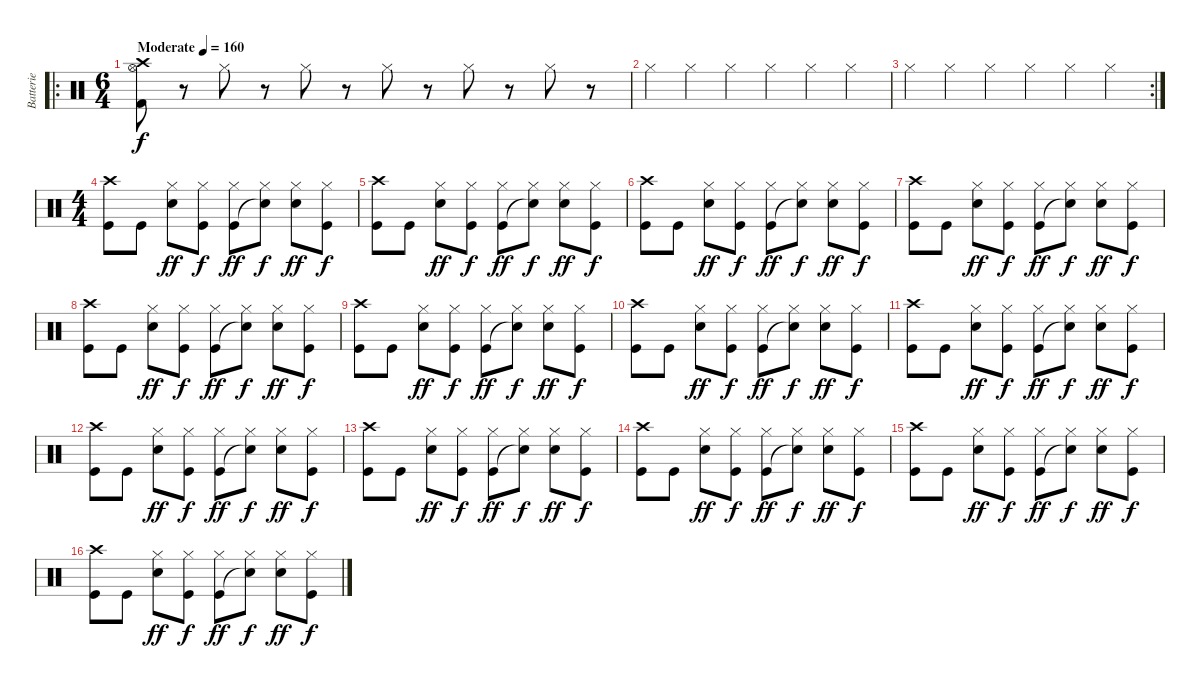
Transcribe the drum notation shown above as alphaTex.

\track ("Batterie" "Batterie") {instrument percussion}
\staff {score}
\articulation defaults
\ro
\ts (6 4)
\tempo (160 "Moderate")
\clef neutral
\ks c
("Hi-Hat (open)" "Crash high (hit)" "Kick (hit) 2").8{dy f} r.8 "Hi-Hat (closed)".8 r.8 "Hi-Hat (closed)".8 r.8 "Hi-Hat (closed)".8 r.8 "Hi-Hat (closed)".8 r.8 "Hi-Hat (closed)".8 r.8 |
"Hi-Hat (closed)".4 "Hi-Hat (closed)".4 "Hi-Hat (closed)".4 "Hi-Hat (closed)".4 "Hi-Hat (closed)".4 "Hi-Hat (closed)".4 |
\rc 2 "Hi-Hat (closed)".4 "Hi-Hat (closed)".4 "Hi-Hat (closed)".4 "Hi-Hat (closed)".4 "Hi-Hat (closed)".4 "Hi-Hat (closed)".4
|
\ts (4 4)
("Crash high (hit)" "Kick (hit)").8 "Kick (hit)".8 ("Hi-Hat (closed)" "Snare (hit) 2").8{dy ff} ("Hi-Hat (closed)" "Kick (hit)").8{dy f} ("Hi-Hat (closed)" "Kick (hit)").8{dy ff} ("Hi-Hat (closed)" "Snare (hit)"{t}).8{dy f} ("Hi-Hat (closed)" "Snare (hit) 2").8{dy ff} ("Hi-Hat (closed)" "Kick (hit)").8{dy f} |
("Crash high (hit)" "Kick (hit)").8 "Kick (hit)".8 ("Hi-Hat (closed)" "Snare (hit) 2").8{dy ff} ("Hi-Hat (closed)" "Kick (hit)").8{dy f} ("Hi-Hat (closed)" "Kick (hit)").8{dy ff} ("Hi-Hat (closed)" "Snare (hit)"{t}).8{dy f} ("Hi-Hat (closed)" "Snare (hit) 2").8{dy ff} ("Hi-Hat (closed)" "Kick (hit)").8{dy f} |
("Crash high (hit)" "Kick (hit)").8 "Kick (hit)".8 ("Hi-Hat (closed)" "Snare (hit) 2").8{dy ff} ("Hi-Hat (closed)" "Kick (hit)").8{dy f} ("Hi-Hat (closed)" "Kick (hit)").8{dy ff} ("Hi-Hat (closed)" "Snare (hit)"{t}).8{dy f} ("Hi-Hat (closed)" "Snare (hit) 2").8{dy ff} ("Hi-Hat (closed)" "Kick (hit)").8{dy f} |
("Crash high (hit)" "Kick (hit)").8 "Kick (hit)".8 ("Hi-Hat (closed)" "Snare (hit) 2").8{dy ff} ("Hi-Hat (closed)" "Kick (hit)").8{dy f} ("Hi-Hat (closed)" "Kick (hit)").8{dy ff} ("Hi-Hat (closed)" "Snare (hit)"{t}).8{dy f} ("Hi-Hat (closed)" "Snare (hit) 2").8{dy ff} ("Hi-Hat (closed)" "Kick (hit)").8{dy f} |
("Crash high (hit)" "Kick (hit)").8 "Kick (hit)".8 ("Hi-Hat (closed)" "Snare (hit) 2").8{dy ff} ("Hi-Hat (closed)" "Kick (hit)").8{dy f} ("Hi-Hat (closed)" "Kick (hit)").8{dy ff} ("Hi-Hat (closed)" "Snare (hit)"{t}).8{dy f} ("Hi-Hat (closed)" "Snare (hit) 2").8{dy ff} ("Hi-Hat (closed)" "Kick (hit)").8{dy f} |
("Crash high (hit)" "Kick (hit)").8 "Kick (hit)".8 ("Hi-Hat (closed)" "Snare (hit) 2").8{dy ff} ("Hi-Hat (closed)" "Kick (hit)").8{dy f} ("Hi-Hat (closed)" "Kick (hit)").8{dy ff} ("Hi-Hat (closed)" "Snare (hit)"{t}).8{dy f} ("Hi-Hat (closed)" "Snare (hit) 2").8{dy ff} ("Hi-Hat (closed)" "Kick (hit)").8{dy f} |
("Crash high (hit)" "Kick (hit)").8 "Kick (hit)".8 ("Hi-Hat (closed)" "Snare (hit) 2").8{dy ff} ("Hi-Hat (closed)" "Kick (hit)").8{dy f} ("Hi-Hat (closed)" "Kick (hit)").8{dy ff} ("Hi-Hat (closed)" "Snare (hit)"{t}).8{dy f} ("Hi-Hat (closed)" "Snare (hit) 2").8{dy ff} ("Hi-Hat (closed)" "Kick (hit)").8{dy f} |
("Crash high (hit)" "Kick (hit)").8 "Kick (hit)".8 ("Hi-Hat (closed)" "Snare (hit) 2").8{dy ff} ("Hi-Hat (closed)" "Kick (hit)").8{dy f} ("Hi-Hat (closed)" "Kick (hit)").8{dy ff} ("Hi-Hat (closed)" "Snare (hit)"{t}).8{dy f} ("Hi-Hat (closed)" "Snare (hit) 2").8{dy ff} ("Hi-Hat (closed)" "Kick (hit)").8{dy f} |
("Crash high (hit)" "Kick (hit)").8 "Kick (hit)".8 ("Hi-Hat (closed)" "Snare (hit) 2").8{dy ff} ("Hi-Hat (closed)" "Kick (hit)").8{dy f} ("Hi-Hat (closed)" "Kick (hit)").8{dy ff} ("Hi-Hat (closed)" "Snare (hit)"{t}).8{dy f} ("Hi-Hat (closed)" "Snare (hit) 2").8{dy ff} ("Hi-Hat (closed)" "Kick (hit)").8{dy f} |
("Crash high (hit)" "Kick (hit)").8 "Kick (hit)".8 ("Hi-Hat (closed)" "Snare (hit) 2").8{dy ff} ("Hi-Hat (closed)" "Kick (hit)").8{dy f} ("Hi-Hat (closed)" "Kick (hit)").8{dy ff} ("Hi-Hat (closed)" "Snare (hit)"{t}).8{dy f} ("Hi-Hat (closed)" "Snare (hit) 2").8{dy ff} ("Hi-Hat (closed)" "Kick (hit)").8{dy f} |
("Crash high (hit)" "Kick (hit)").8 "Kick (hit)".8 ("Hi-Hat (closed)" "Snare (hit) 2").8{dy ff} ("Hi-Hat (closed)" "Kick (hit)").8{dy f} ("Hi-Hat (closed)" "Kick (hit)").8{dy ff} ("Hi-Hat (closed)" "Snare (hit)"{t}).8{dy f} ("Hi-Hat (closed)" "Snare (hit) 2").8{dy ff} ("Hi-Hat (closed)" "Kick (hit)").8{dy f} |
("Crash high (hit)" "Kick (hit)").8 "Kick (hit)".8 ("Hi-Hat (closed)" "Snare (hit) 2").8{dy ff} ("Hi-Hat (closed)" "Kick (hit)").8{dy f} ("Hi-Hat (closed)" "Kick (hit)").8{dy ff} ("Hi-Hat (closed)" "Snare (hit)"{t}).8{dy f} ("Hi-Hat (closed)" "Snare (hit) 2").8{dy ff} ("Hi-Hat (closed)" "Kick (hit)").8{dy f} |
("Crash high (hit)" "Kick (hit)").8 "Kick (hit)".8 ("Hi-Hat (closed)" "Snare (hit) 2").8{dy ff} ("Hi-Hat (closed)" "Kick (hit)").8{dy f} ("Hi-Hat (closed)" "Kick (hit)").8{dy ff} ("Hi-Hat (closed)" "Snare (hit)"{t}).8{dy f} ("Hi-Hat (closed)" "Snare (hit) 2").8{dy ff} ("Hi-Hat (closed)" "Kick (hit)").8{dy f}
